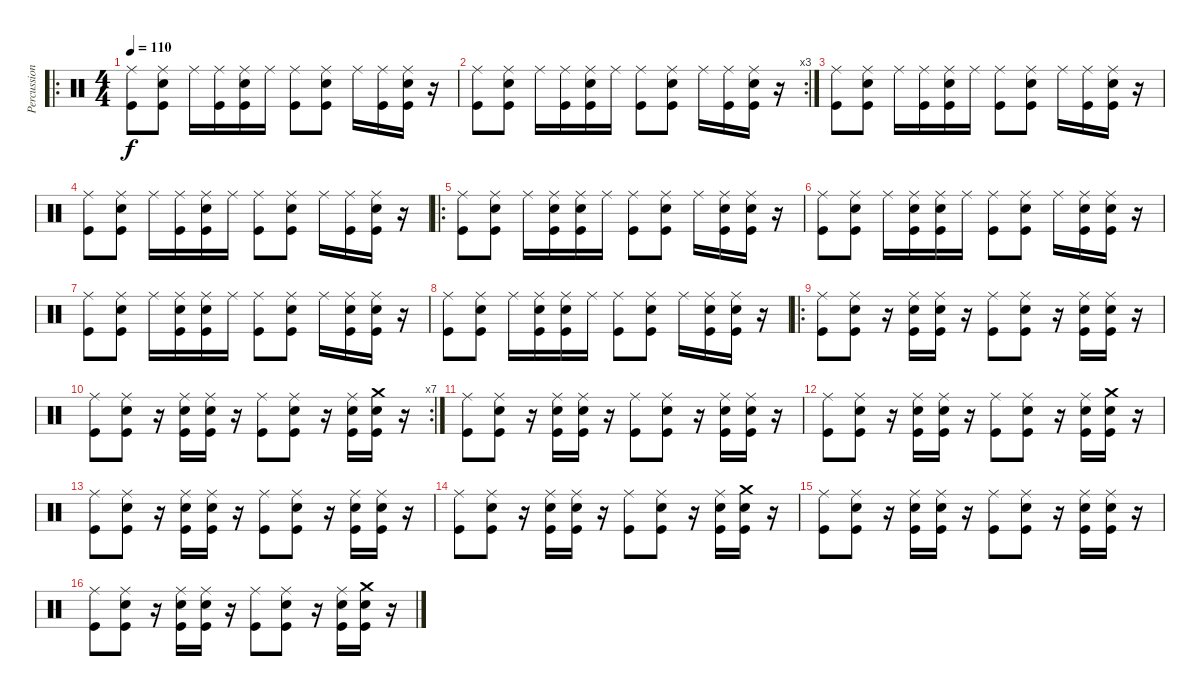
\track ("Percussion" "Percussion") {instrument percussion}
\staff {score}
\articulation defaults
\ro
\ts (4 4)
\tempo 110
\clef neutral
\ks c
("Ride (middle)" "Kick (hit)").8{dy f} ("Snare (hit) 2" "Ride (middle)" "Kick (hit)").8 "Ride (middle)".16 ("Ride (middle)" "Kick (hit)").16 ("Snare (hit) 2" "Ride (middle)" "Kick (hit)").16 "Ride (middle)".16 ("Ride (middle)" "Kick (hit)").8 ("Snare (hit) 2" "Ride (middle)" "Kick (hit)").8 "Ride (middle)".16 ("Ride (middle)" "Kick (hit)").16 ("Snare (hit) 2" "Ride (middle)" "Kick (hit)").16 r.16 |
\rc 3
("Ride (middle)" "Kick (hit)").8 ("Snare (hit) 2" "Ride (middle)" "Kick (hit)").8 "Ride (middle)".16 ("Ride (middle)" "Kick (hit)").16 ("Snare (hit) 2" "Ride (middle)" "Kick (hit)").16 "Ride (middle)".16 ("Ride (middle)" "Kick (hit)").8 ("Snare (hit) 2" "Ride (middle)" "Kick (hit)").8 "Ride (middle)".16 ("Ride (middle)" "Kick (hit)").16 ("Snare (hit) 2" "Ride (middle)" "Kick (hit)").16 r.16 |
("Ride (middle)" "Kick (hit)").8 ("Snare (hit) 2" "Ride (middle)" "Kick (hit)").8 "Ride (middle)".16 ("Ride (middle)" "Kick (hit)").16 ("Snare (hit) 2" "Ride (middle)" "Kick (hit)").16 "Ride (middle)".16 ("Ride (middle)" "Kick (hit)").8 ("Snare (hit) 2" "Ride (middle)" "Kick (hit)").8 "Ride (middle)".16 ("Ride (middle)" "Kick (hit)").16 ("Snare (hit) 2" "Ride (middle)" "Kick (hit)").16 r.16 |
("Ride (middle)" "Kick (hit)").8 ("Snare (hit) 2" "Ride (middle)" "Kick (hit)").8 "Ride (middle)".16 ("Ride (middle)" "Kick (hit)").16 ("Snare (hit) 2" "Ride (middle)" "Kick (hit)").16 "Ride (middle)".16 ("Ride (middle)" "Kick (hit)").8 ("Snare (hit) 2" "Ride (middle)" "Kick (hit)").8 "Ride (middle)".16 ("Ride (middle)" "Kick (hit)").16 ("Snare (hit) 2" "Ride (middle)" "Kick (hit)").16 r.16 |
\ro
("Ride (middle)" "Kick (hit)").8 ("Snare (hit) 2" "Ride (middle)" "Kick (hit)").8 "Ride (middle)".16 ("Snare (hit) 2" "Ride (middle)" "Kick (hit)").16 ("Snare (hit) 2" "Ride (middle)" "Kick (hit)").16 "Ride (middle)".16 ("Ride (middle)" "Kick (hit)").8 ("Snare (hit) 2" "Ride (middle)" "Kick (hit)").8 "Ride (middle)".16 ("Snare (hit) 2" "Ride (middle)" "Kick (hit)").16 ("Snare (hit) 2" "Ride (middle)" "Kick (hit)").16 r.16 |
("Ride (middle)" "Kick (hit)").8 ("Snare (hit) 2" "Ride (middle)" "Kick (hit)").8 "Ride (middle)".16 ("Snare (hit) 2" "Ride (middle)" "Kick (hit)").16 ("Snare (hit) 2" "Ride (middle)" "Kick (hit)").16 "Ride (middle)".16 ("Ride (middle)" "Kick (hit)").8 ("Snare (hit) 2" "Ride (middle)" "Kick (hit)").8 "Ride (middle)".16 ("Snare (hit) 2" "Ride (middle)" "Kick (hit)").16 ("Snare (hit) 2" "Ride (middle)" "Kick (hit)").16 r.16 |
("Ride (middle)" "Kick (hit)").8 ("Snare (hit) 2" "Ride (middle)" "Kick (hit)").8 "Ride (middle)".16 ("Snare (hit) 2" "Ride (middle)" "Kick (hit)").16 ("Snare (hit) 2" "Ride (middle)" "Kick (hit)").16 "Ride (middle)".16 ("Ride (middle)" "Kick (hit)").8 ("Snare (hit) 2" "Ride (middle)" "Kick (hit)").8 "Ride (middle)".16 ("Snare (hit) 2" "Ride (middle)" "Kick (hit)").16 ("Snare (hit) 2" "Ride (middle)" "Kick (hit)").16 r.16 |
("Ride (middle)" "Kick (hit)").8 ("Snare (hit) 2" "Ride (middle)" "Kick (hit)").8 "Ride (middle)".16 ("Snare (hit) 2" "Ride (middle)" "Kick (hit)").16 ("Snare (hit) 2" "Ride (middle)" "Kick (hit)").16 "Ride (middle)".16 ("Ride (middle)" "Kick (hit)").8 ("Snare (hit) 2" "Ride (middle)" "Kick (hit)").8 "Ride (middle)".16 ("Snare (hit) 2" "Ride (middle)" "Kick (hit)").16 ("Snare (hit) 2" "Ride (middle)" "Kick (hit)").16 r.16 |
\ro
("Ride (middle)" "Kick (hit)").8 ("Snare (hit) 2" "Ride (middle)" "Kick (hit)").8 r.16 ("Snare (hit) 2" "Ride (middle)" "Kick (hit)").16 ("Snare (hit) 2" "Ride (middle)" "Kick (hit)").16 r.16 ("Ride (middle)" "Kick (hit)").8 ("Snare (hit) 2" "Ride (middle)" "Kick (hit)").8 r.16 ("Snare (hit) 2" "Ride (middle)" "Kick (hit)").16 ("Snare (hit) 2" "Ride (middle)" "Kick (hit)").16 r.16 |
\rc 7
("Ride (middle)" "Kick (hit)").8 ("Snare (hit) 2" "Ride (middle)" "Kick (hit)").8 r.16 ("Snare (hit) 2" "Ride (middle)" "Kick (hit)").16 ("Snare (hit) 2" "Ride (middle)" "Kick (hit)").16 r.16 ("Ride (middle)" "Kick (hit)").8 ("Snare (hit) 2" "Ride (middle)" "Kick (hit)").8 r.16 ("Snare (hit) 2" "Ride (middle)" "Kick (hit)").16 ("Snare (hit) 2" "Crash medium (hit)" "Kick (hit)").16 r.16 |
("Ride (middle)" "Kick (hit)").8{volume 9} ("Snare (hit) 2" "Ride (middle)" "Kick (hit)").8 r.16 ("Snare (hit) 2" "Ride (middle)" "Kick (hit)").16 ("Snare (hit) 2" "Ride (middle)" "Kick (hit)").16 r.16 ("Ride (middle)" "Kick (hit)").8 ("Snare (hit) 2" "Ride (middle)" "Kick (hit)").8 r.16 ("Snare (hit) 2" "Ride (middle)" "Kick (hit)").16 ("Snare (hit) 2" "Ride (middle)" "Kick (hit)").16 r.16 |
("Ride (middle)" "Kick (hit)").8 ("Snare (hit) 2" "Ride (middle)" "Kick (hit)").8 r.16 ("Snare (hit) 2" "Ride (middle)" "Kick (hit)").16 ("Snare (hit) 2" "Ride (middle)" "Kick (hit)").16 r.16 ("Ride (middle)" "Kick (hit)").8 ("Snare (hit) 2" "Ride (middle)" "Kick (hit)").8 r.16 ("Snare (hit) 2" "Ride (middle)" "Kick (hit)").16 ("Snare (hit) 2" "Crash medium (hit)" "Kick (hit)").16 r.16 |
("Ride (middle)" "Kick (hit)").8{volume 6} ("Snare (hit) 2" "Ride (middle)" "Kick (hit)").8 r.16 ("Snare (hit) 2" "Ride (middle)" "Kick (hit)").16 ("Snare (hit) 2" "Ride (middle)" "Kick (hit)").16 r.16 ("Ride (middle)" "Kick (hit)").8 ("Snare (hit) 2" "Ride (middle)" "Kick (hit)").8 r.16 ("Snare (hit) 2" "Ride (middle)" "Kick (hit)").16 ("Snare (hit) 2" "Ride (middle)" "Kick (hit)").16 r.16 |
("Ride (middle)" "Kick (hit)").8 ("Snare (hit) 2" "Ride (middle)" "Kick (hit)").8 r.16 ("Snare (hit) 2" "Ride (middle)" "Kick (hit)").16 ("Snare (hit) 2" "Ride (middle)" "Kick (hit)").16 r.16 ("Ride (middle)" "Kick (hit)").8 ("Snare (hit) 2" "Ride (middle)" "Kick (hit)").8 r.16 ("Snare (hit) 2" "Ride (middle)" "Kick (hit)").16 ("Snare (hit) 2" "Crash medium (hit)" "Kick (hit)").16 r.16 |
("Ride (middle)" "Kick (hit)").8{volume 3} ("Snare (hit) 2" "Ride (middle)" "Kick (hit)").8 r.16 ("Snare (hit) 2" "Ride (middle)" "Kick (hit)").16 ("Snare (hit) 2" "Ride (middle)" "Kick (hit)").16 r.16 ("Ride (middle)" "Kick (hit)").8 ("Snare (hit) 2" "Ride (middle)" "Kick (hit)").8 r.16 ("Snare (hit) 2" "Ride (middle)" "Kick (hit)").16 ("Snare (hit) 2" "Ride (middle)" "Kick (hit)").16 r.16 |
("Ride (middle)" "Kick (hit)").8 ("Snare (hit) 2" "Ride (middle)" "Kick (hit)").8 r.16 ("Snare (hit) 2" "Ride (middle)" "Kick (hit)").16 ("Snare (hit) 2" "Ride (middle)" "Kick (hit)").16 r.16 ("Ride (middle)" "Kick (hit)").8 ("Snare (hit) 2" "Ride (middle)" "Kick (hit)").8 r.16 ("Snare (hit) 2" "Ride (middle)" "Kick (hit)").16 ("Snare (hit) 2" "Crash medium (hit)" "Kick (hit)").16 r.16
